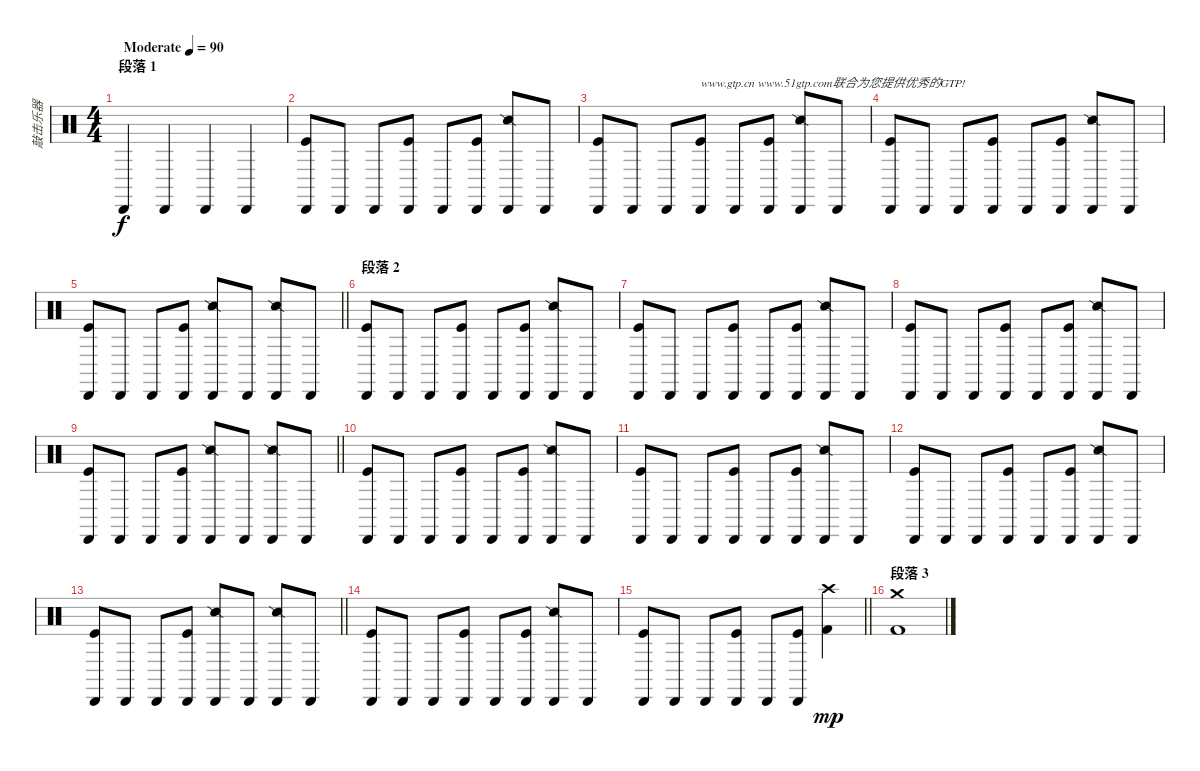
\track ("敲击乐器" "敲击乐器") {instrument percussion}
\staff {score}
\articulation defaults
\ts (4 4)
\section ("" "段落 1")
\tempo (90 "Moderate")
\clef neutral
\ks c "Cabasa (hit)".4{dy f} "Cabasa (hit)".4 "Cabasa (hit)".4 "Cabasa (hit)".4
|
("Cabasa (hit)" "Kick (hit)").8 "Cabasa (hit)".8 "Cabasa (hit)".8 ("Cabasa (hit)" "Kick (hit)").8 "Cabasa (hit)".8 ("Cabasa (hit)" "Kick (hit)").8 ("Cabasa (hit)" "Snare (side stick) 2").8 "Cabasa (hit)".8 |
("Cabasa (hit)" "Kick (hit)").8 "Cabasa (hit)".8 "Cabasa (hit)".8 ("Cabasa (hit)" "Kick (hit)").8{txt "www.gtp.cn www.51gtp.com联合为您提供优秀的GTP!"} "Cabasa (hit)".8 ("Cabasa (hit)" "Kick (hit)").8 ("Cabasa (hit)" "Snare (side stick) 2").8 "Cabasa (hit)".8 |
("Cabasa (hit)" "Kick (hit)").8 "Cabasa (hit)".8 "Cabasa (hit)".8 ("Cabasa (hit)" "Kick (hit)").8 "Cabasa (hit)".8 ("Cabasa (hit)" "Kick (hit)").8 ("Cabasa (hit)" "Snare (side stick) 2").8 "Cabasa (hit)".8 |
\barLineRight lightlight
("Cabasa (hit)" "Kick (hit)").8 "Cabasa (hit)".8 "Cabasa (hit)".8 ("Cabasa (hit)" "Kick (hit)").8 ("Cabasa (hit)" "Snare (side stick) 2").8 "Cabasa (hit)".8 ("Cabasa (hit)" "Snare (side stick) 2").8 "Cabasa (hit)".8 |
\section ("" "段落 2")
("Cabasa (hit)" "Kick (hit)").8 "Cabasa (hit)".8 "Cabasa (hit)".8 ("Cabasa (hit)" "Kick (hit)").8 "Cabasa (hit)".8 ("Cabasa (hit)" "Kick (hit)").8 ("Cabasa (hit)" "Snare (side stick) 2").8 "Cabasa (hit)".8 |
("Cabasa (hit)" "Kick (hit)").8 "Cabasa (hit)".8 "Cabasa (hit)".8 ("Cabasa (hit)" "Kick (hit)").8 "Cabasa (hit)".8 ("Cabasa (hit)" "Kick (hit)").8 ("Cabasa (hit)" "Snare (side stick) 2").8 "Cabasa (hit)".8 |
("Cabasa (hit)" "Kick (hit)").8 "Cabasa (hit)".8 "Cabasa (hit)".8 ("Cabasa (hit)" "Kick (hit)").8 "Cabasa (hit)".8 ("Cabasa (hit)" "Kick (hit)").8 ("Cabasa (hit)" "Snare (side stick) 2").8 "Cabasa (hit)".8 |
\barLineRight lightlight
("Cabasa (hit)" "Kick (hit)").8 "Cabasa (hit)".8 "Cabasa (hit)".8 ("Cabasa (hit)" "Kick (hit)").8 ("Cabasa (hit)" "Snare (side stick) 2").8 "Cabasa (hit)".8 ("Cabasa (hit)" "Snare (side stick) 2").8 "Cabasa (hit)".8 |
("Cabasa (hit)" "Kick (hit)").8 "Cabasa (hit)".8 "Cabasa (hit)".8 ("Cabasa (hit)" "Kick (hit)").8 "Cabasa (hit)".8 ("Cabasa (hit)" "Kick (hit)").8 ("Cabasa (hit)" "Snare (side stick) 2").8 "Cabasa (hit)".8 |
("Cabasa (hit)" "Kick (hit)").8 "Cabasa (hit)".8 "Cabasa (hit)".8 ("Cabasa (hit)" "Kick (hit)").8 "Cabasa (hit)".8 ("Cabasa (hit)" "Kick (hit)").8 ("Cabasa (hit)" "Snare (side stick) 2").8 "Cabasa (hit)".8 |
("Cabasa (hit)" "Kick (hit)").8 "Cabasa (hit)".8 "Cabasa (hit)".8 ("Cabasa (hit)" "Kick (hit)").8 "Cabasa (hit)".8 ("Cabasa (hit)" "Kick (hit)").8 ("Cabasa (hit)" "Snare (side stick) 2").8 "Cabasa (hit)".8 |
\barLineRight lightlight
("Cabasa (hit)" "Kick (hit)").8 "Cabasa (hit)".8 "Cabasa (hit)".8 ("Cabasa (hit)" "Kick (hit)").8 ("Cabasa (hit)" "Snare (side stick) 2").8 "Cabasa (hit)".8 ("Cabasa (hit)" "Snare (side stick) 2").8 "Cabasa (hit)".8 |
("Cabasa (hit)" "Kick (hit)").8 "Cabasa (hit)".8 "Cabasa (hit)".8 ("Cabasa (hit)" "Kick (hit)").8 "Cabasa (hit)".8 ("Cabasa (hit)" "Kick (hit)").8 ("Cabasa (hit)" "Snare (side stick) 2").8 "Cabasa (hit)".8 |
\barLineRight lightlight
("Cabasa (hit)" "Kick (hit)").8 "Cabasa (hit)".8 "Cabasa (hit)".8 ("Cabasa (hit)" "Kick (hit)").8 "Cabasa (hit)".8 ("Cabasa (hit)" "Kick (hit)").8 ("Crash high (hit)" "Kick (hit) 2").4{dy mp} |
\section ("" "段落 3")
("Crash medium (hit)" "Kick (hit) 2").1
